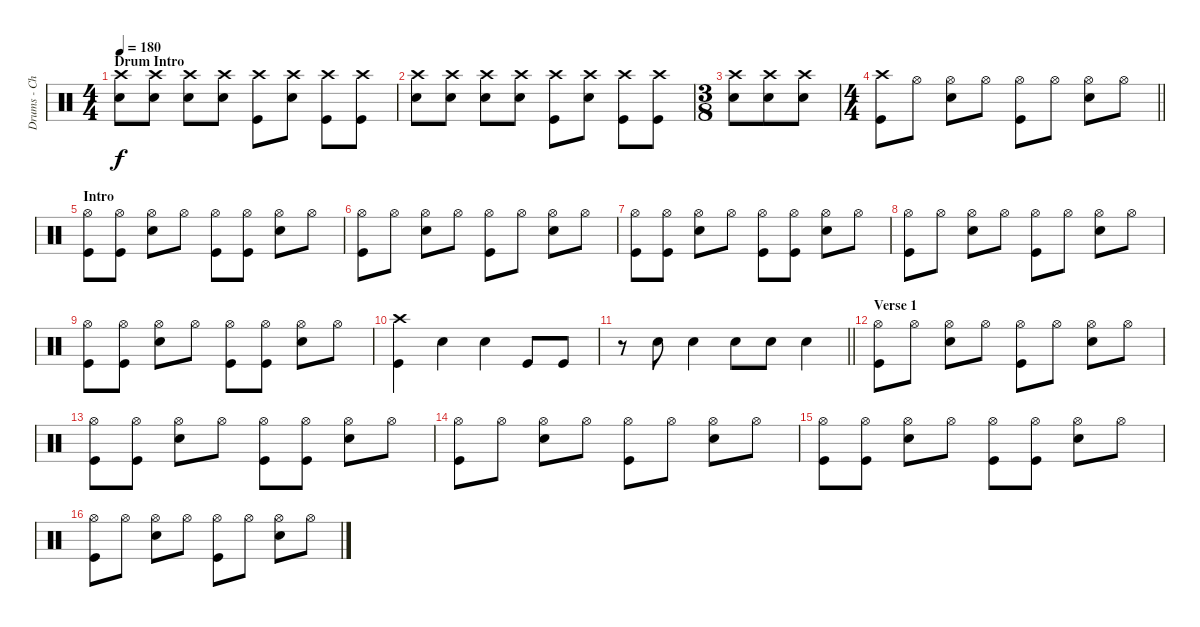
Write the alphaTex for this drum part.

\track ("Drums - Chris Dangerous" "Drums - Ch") {instrument percussion}
\staff {score}
\articulation defaults
\ts (4 4)
\section ("" "Drum Intro")
\tempo 180
\clef neutral
\ks c
("Crash high (hit)" "Snare (hit) 2").8{dy f} ("Crash high (hit)" "Snare (hit) 2").8 ("Crash high (hit)" "Snare (hit) 2").8 ("Crash high (hit)" "Snare (hit) 2").8 ("Crash high (hit)" "Kick (hit)").8 ("Crash high (hit)" "Snare (hit) 2").8 ("Crash high (hit)" "Kick (hit)").8 ("Crash high (hit)" "Kick (hit)").8 |
("Crash high (hit)" "Snare (hit) 2").8 ("Crash high (hit)" "Snare (hit) 2").8 ("Crash high (hit)" "Snare (hit) 2").8 ("Crash high (hit)" "Snare (hit) 2").8 ("Crash high (hit)" "Kick (hit)").8 ("Crash high (hit)" "Snare (hit) 2").8 ("Crash high (hit)" "Kick (hit)").8 ("Crash high (hit)" "Kick (hit)").8 |
\ts (3 8)
("Crash high (hit)" "Snare (hit) 2").8 ("Crash high (hit)" "Snare (hit) 2").8 ("Crash high (hit)" "Snare (hit) 2").8 |
\ts (4 4)
\barLineRight lightlight
("Crash high (hit)" "Kick (hit)").8 "Hi-Hat (open)".8 ("Hi-Hat (open)" "Snare (hit) 2").8 "Hi-Hat (open)".8 ("Hi-Hat (open)" "Kick (hit)").8 "Hi-Hat (open)".8 ("Hi-Hat (open)" "Snare (hit) 2").8 "Hi-Hat (open)".8 |
\section ("" "Intro")
("Hi-Hat (open)" "Kick (hit)").8 ("Hi-Hat (open)" "Kick (hit)").8 ("Hi-Hat (open)" "Snare (hit) 2").8 "Hi-Hat (open)".8 ("Hi-Hat (open)" "Kick (hit)").8 ("Hi-Hat (open)" "Kick (hit)").8 ("Hi-Hat (open)" "Snare (hit) 2").8 "Hi-Hat (open)".8 |
("Hi-Hat (open)" "Kick (hit)").8 "Hi-Hat (open)".8 ("Hi-Hat (open)" "Snare (hit) 2").8 "Hi-Hat (open)".8 ("Hi-Hat (open)" "Kick (hit)").8 "Hi-Hat (open)".8 ("Hi-Hat (open)" "Snare (hit) 2").8 "Hi-Hat (open)".8 |
("Hi-Hat (open)" "Kick (hit)").8 ("Hi-Hat (open)" "Kick (hit)").8 ("Hi-Hat (open)" "Snare (hit) 2").8 "Hi-Hat (open)".8 ("Hi-Hat (open)" "Kick (hit)").8 ("Hi-Hat (open)" "Kick (hit)").8 ("Hi-Hat (open)" "Snare (hit) 2").8 "Hi-Hat (open)".8 |
("Hi-Hat (open)" "Kick (hit)").8 "Hi-Hat (open)".8 ("Hi-Hat (open)" "Snare (hit) 2").8 "Hi-Hat (open)".8 ("Hi-Hat (open)" "Kick (hit)").8 "Hi-Hat (open)".8 ("Hi-Hat (open)" "Snare (hit) 2").8 "Hi-Hat (open)".8 |
("Hi-Hat (open)" "Kick (hit)").8 ("Hi-Hat (open)" "Kick (hit)").8 ("Hi-Hat (open)" "Snare (hit) 2").8 "Hi-Hat (open)".8 ("Hi-Hat (open)" "Kick (hit)").8 ("Hi-Hat (open)" "Kick (hit)").8 ("Hi-Hat (open)" "Snare (hit) 2").8 "Hi-Hat (open)".8 |
("Crash high (hit)" "Kick (hit)").4 "Snare (hit) 2".4 "Snare (hit) 2".4 "Kick (hit)".8 "Kick (hit)".8 |
\barLineRight lightlight
r.8 "Snare (hit) 2".8 "Snare (hit) 2".4 "Snare (hit) 2".8 "Snare (hit) 2".8 "Snare (hit) 2".4 |
\section ("" "Verse 1")
("Hi-Hat (open)" "Kick (hit)").8 "Hi-Hat (open)".8 ("Hi-Hat (open)" "Snare (hit) 2").8 "Hi-Hat (open)".8 ("Hi-Hat (open)" "Kick (hit)").8 "Hi-Hat (open)".8 ("Hi-Hat (open)" "Snare (hit) 2").8 "Hi-Hat (open)".8 |
("Hi-Hat (open)" "Kick (hit)").8 ("Hi-Hat (open)" "Kick (hit)").8 ("Hi-Hat (open)" "Snare (hit) 2").8 "Hi-Hat (open)".8 ("Hi-Hat (open)" "Kick (hit)").8 ("Hi-Hat (open)" "Kick (hit)").8 ("Hi-Hat (open)" "Snare (hit) 2").8 "Hi-Hat (open)".8 |
("Hi-Hat (open)" "Kick (hit)").8 "Hi-Hat (open)".8 ("Hi-Hat (open)" "Snare (hit) 2").8 "Hi-Hat (open)".8 ("Hi-Hat (open)" "Kick (hit)").8 "Hi-Hat (open)".8 ("Hi-Hat (open)" "Snare (hit) 2").8 "Hi-Hat (open)".8 |
("Hi-Hat (open)" "Kick (hit)").8 ("Hi-Hat (open)" "Kick (hit)").8 ("Hi-Hat (open)" "Snare (hit) 2").8 "Hi-Hat (open)".8 ("Hi-Hat (open)" "Kick (hit)").8 ("Hi-Hat (open)" "Kick (hit)").8 ("Hi-Hat (open)" "Snare (hit) 2").8 "Hi-Hat (open)".8 |
("Hi-Hat (open)" "Kick (hit)").8 "Hi-Hat (open)".8 ("Hi-Hat (open)" "Snare (hit) 2").8 "Hi-Hat (open)".8 ("Hi-Hat (open)" "Kick (hit)").8 "Hi-Hat (open)".8 ("Hi-Hat (open)" "Snare (hit) 2").8 "Hi-Hat (open)".8
